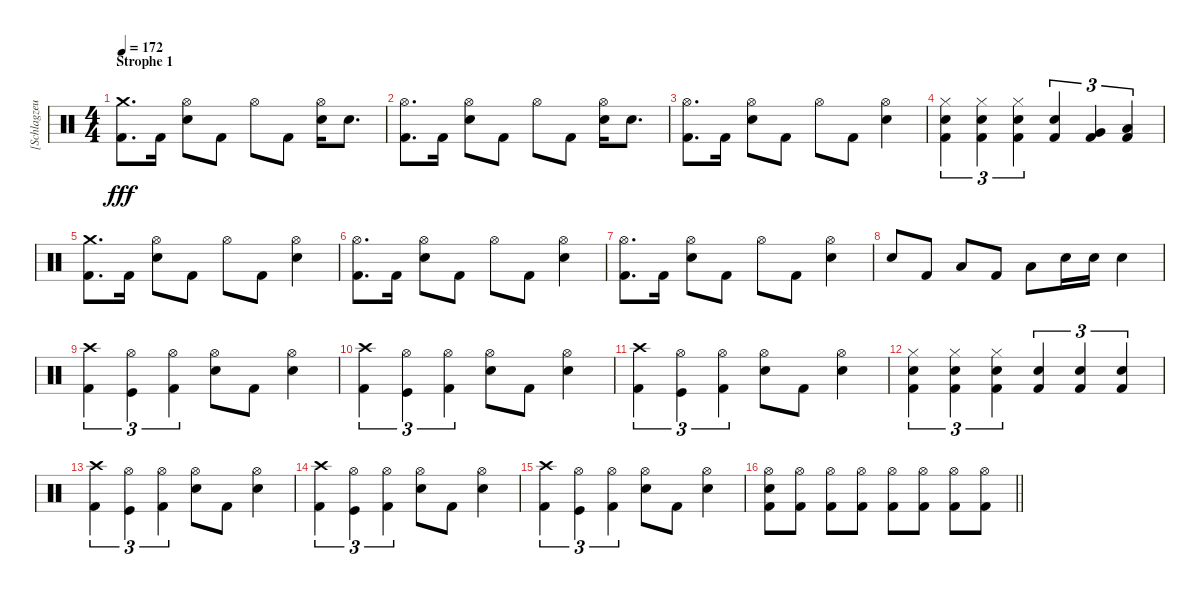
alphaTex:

\track ("[Schlagzeug]" "[Schlagzeu") {instrument percussion}
\staff {score}
\articulation defaults
\ts (4 4)
\section ("" "Strophe 1")
\tempo 172
\clef neutral
\ks c
("Crash medium (hit)" "Kick (hit) 2").8{d dy fff} "Kick (hit) 2".16 ("Hi-Hat (open)" "Electric Snare (hit)").8 "Kick (hit) 2".8 "Hi-Hat (open)".8 "Kick (hit) 2".8 ("Hi-Hat (open)" "Electric Snare (hit)").16 "Electric Snare (hit)".8{d} |
("Hi-Hat (open)" "Kick (hit) 2").8{d} "Kick (hit) 2".16 ("Hi-Hat (open)" "Electric Snare (hit)").8 "Kick (hit) 2".8 "Hi-Hat (open)".8 "Kick (hit) 2".8 ("Hi-Hat (open)" "Electric Snare (hit)").16 "Electric Snare (hit)".8{d} |
("Hi-Hat (open)" "Kick (hit) 2").8{d} "Kick (hit) 2".16 ("Hi-Hat (open)" "Electric Snare (hit)").8 "Kick (hit) 2".8 "Hi-Hat (open)".8 "Kick (hit) 2".8 ("Hi-Hat (open)" "Electric Snare (hit)").4 |
("Hi-Hat (closed)" "Electric Snare (hit)" "Kick (hit) 2").4{tu (3 2)} ("Hi-Hat (closed)" "Electric Snare (hit)" "Kick (hit) 2").4{tu (3 2)} ("Hi-Hat (closed)" "Electric Snare (hit)" "Kick (hit) 2").4{tu (3 2)} ("Electric Snare (hit)" "Kick (hit) 2").4{tu (3 2)} ("Very Low Tom (hit)" "Kick (hit) 2").4{tu (3 2)} ("Low Tom (hit)" "Kick (hit) 2").4{tu (3 2)} |
("Crash medium (hit)" "Kick (hit) 2").8{d} "Kick (hit) 2".16 ("Hi-Hat (open)" "Electric Snare (hit)").8 "Kick (hit) 2".8 "Hi-Hat (open)".8 "Kick (hit) 2".8 ("Hi-Hat (open)" "Electric Snare (hit)").4 |
("Hi-Hat (open)" "Kick (hit) 2").8{d} "Kick (hit) 2".16 ("Hi-Hat (open)" "Electric Snare (hit)").8 "Kick (hit) 2".8 "Hi-Hat (open)".8 "Kick (hit) 2".8 ("Hi-Hat (open)" "Electric Snare (hit)").4 |
("Hi-Hat (open)" "Kick (hit) 2").8{d} "Kick (hit) 2".16 ("Hi-Hat (open)" "Electric Snare (hit)").8 "Kick (hit) 2".8 "Hi-Hat (open)".8 "Kick (hit) 2".8 ("Hi-Hat (open)" "Electric Snare (hit)").4 |
"Electric Snare (hit)".8 "Kick (hit) 2".8 "Low Tom (hit)".8 "Kick (hit) 2".8 "Low Tom (hit)".8 "Electric Snare (hit)".16 "Electric Snare (hit)".16 "Electric Snare (hit)".4 |
("Crash high (hit)" "Kick (hit) 2").4{tu (3 2)} ("Hi-Hat (open)" "Kick (hit)").4{tu (3 2)} ("Hi-Hat (open)" "Kick (hit) 2").4{tu (3 2)} ("Hi-Hat (open)" "Electric Snare (hit)").8 "Kick (hit) 2".8 ("Hi-Hat (open)" "Electric Snare (hit)").4 |
("Crash high (hit)" "Kick (hit) 2").4{tu (3 2)} ("Hi-Hat (open)" "Kick (hit)").4{tu (3 2)} ("Hi-Hat (open)" "Kick (hit) 2").4{tu (3 2)} ("Hi-Hat (open)" "Electric Snare (hit)").8 "Kick (hit) 2".8 ("Hi-Hat (open)" "Electric Snare (hit)").4 |
("Crash high (hit)" "Kick (hit) 2").4{tu (3 2)} ("Hi-Hat (open)" "Kick (hit)").4{tu (3 2)} ("Hi-Hat (open)" "Kick (hit) 2").4{tu (3 2)} ("Hi-Hat (open)" "Electric Snare (hit)").8 "Kick (hit) 2".8 ("Hi-Hat (open)" "Electric Snare (hit)").4 |
("Hi-Hat (closed)" "Electric Snare (hit)" "Kick (hit) 2").4{tu (3 2)} ("Hi-Hat (closed)" "Electric Snare (hit)" "Kick (hit) 2").4{tu (3 2)} ("Hi-Hat (closed)" "Electric Snare (hit)" "Kick (hit) 2").4{tu (3 2)} ("Electric Snare (hit)" "Kick (hit) 2").4{tu (3 2)} ("Electric Snare (hit)" "Kick (hit) 2").4{tu (3 2)} ("Electric Snare (hit)" "Kick (hit) 2").4{tu (3 2)} |
("Crash high (hit)" "Kick (hit) 2").4{tu (3 2)} ("Hi-Hat (open)" "Kick (hit)").4{tu (3 2)} ("Hi-Hat (open)" "Kick (hit) 2").4{tu (3 2)} ("Hi-Hat (open)" "Electric Snare (hit)").8 "Kick (hit) 2".8 ("Hi-Hat (open)" "Electric Snare (hit)").4 |
("Crash high (hit)" "Kick (hit) 2").4{tu (3 2)} ("Hi-Hat (open)" "Kick (hit)").4{tu (3 2)} ("Hi-Hat (open)" "Kick (hit) 2").4{tu (3 2)} ("Hi-Hat (open)" "Electric Snare (hit)").8 "Kick (hit) 2".8 ("Hi-Hat (open)" "Electric Snare (hit)").4 |
("Crash high (hit)" "Kick (hit) 2").4{tu (3 2)} ("Hi-Hat (open)" "Kick (hit)").4{tu (3 2)} ("Hi-Hat (open)" "Kick (hit) 2").4{tu (3 2)} ("Hi-Hat (open)" "Electric Snare (hit)").8 "Kick (hit) 2".8 ("Hi-Hat (open)" "Electric Snare (hit)").4 |
\barLineRight lightlight
("Hi-Hat (open)" "Electric Snare (hit)" "Kick (hit) 2").8 ("Hi-Hat (open)" "Kick (hit) 2").8 ("Hi-Hat (open)" "Kick (hit) 2").8 ("Hi-Hat (open)" "Kick (hit) 2").8 ("Hi-Hat (open)" "Kick (hit) 2").8 ("Hi-Hat (open)" "Kick (hit) 2").8 ("Hi-Hat (open)" "Kick (hit) 2").8 ("Hi-Hat (open)" "Kick (hit) 2").8
